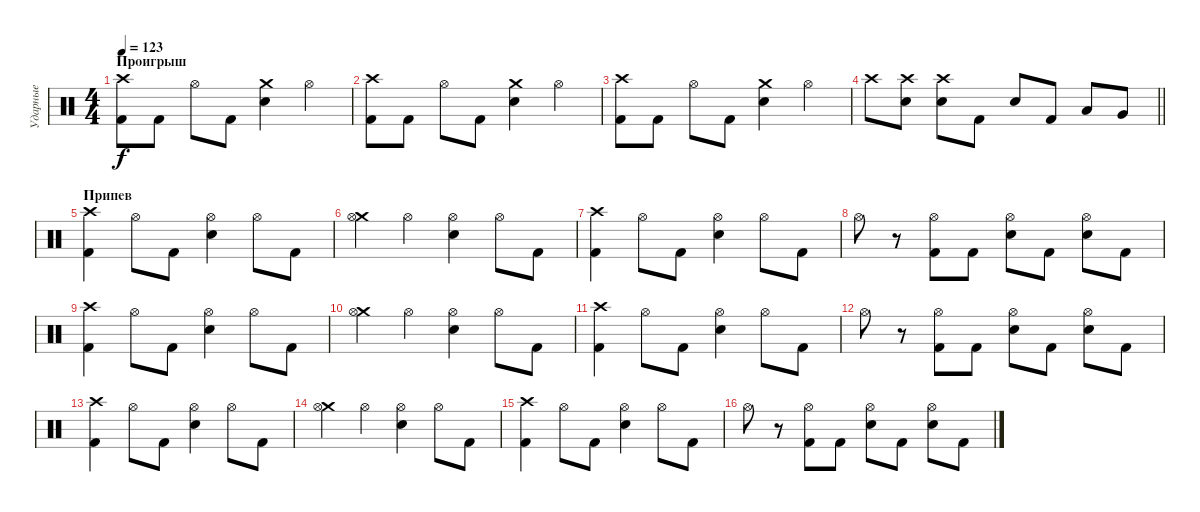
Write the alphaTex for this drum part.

\track ("Ударные" "Ударные") {instrument percussion}
\staff {score}
\articulation defaults
\ts (4 4)
\section ("" "Проигрыш")
\tempo 123
\clef neutral
\ks c
("Kick (hit) 2" "Crash high (hit)").8{dy f} "Kick (hit) 2".8 "Hi-Hat (open)".8 "Kick (hit) 2".8 ("Electric Snare (hit)" "Crash medium (hit)").4 "Hi-Hat (open)".4 |
("Kick (hit) 2" "Crash high (hit)").8 "Kick (hit) 2".8 "Hi-Hat (open)".8 "Kick (hit) 2".8 ("Electric Snare (hit)" "Crash medium (hit)").4 "Hi-Hat (open)".4 |
("Kick (hit) 2" "Crash high (hit)").8 "Kick (hit) 2".8 "Hi-Hat (open)".8 "Kick (hit) 2".8 ("Electric Snare (hit)" "Crash medium (hit)").4 "Hi-Hat (open)".4 |
\barLineRight lightlight "Crash high (hit)".8
("Electric Snare (hit)" "Crash high (hit)").8 ("Electric Snare (hit)" "Crash high (hit)").8 "Kick (hit) 2".8 "Electric Snare (hit)".8 "Kick (hit) 2".8 "Low Tom (hit)".8 "Very Low Tom (hit)".8 |
\section ("" "Припев")
("Kick (hit) 2" "Crash high (hit)").4 "Hi-Hat (open)".8 "Kick (hit) 2".8 ("Electric Snare (hit)" "Hi-Hat (open)").4 "Hi-Hat (open)".8 "Kick (hit) 2".8 |
("Crash medium (hit)" "Hi-Hat (open)").4 "Hi-Hat (open)".4 ("Electric Snare (hit)" "Hi-Hat (open)").4 "Hi-Hat (open)".8 "Kick (hit) 2".8 |
("Kick (hit) 2" "Crash high (hit)").4 "Hi-Hat (open)".8 "Kick (hit) 2".8 ("Electric Snare (hit)" "Hi-Hat (open)").4 "Hi-Hat (open)".8 "Kick (hit) 2".8 |
"Hi-Hat (open)".8 r.8 ("Kick (hit) 2" "Hi-Hat (open)").8 "Kick (hit) 2".8 ("Electric Snare (hit)" "Hi-Hat (open)").8 "Kick (hit) 2".8 ("Electric Snare (hit)" "Hi-Hat (open)").8 "Kick (hit) 2".8 |
("Kick (hit) 2" "Crash high (hit)").4 "Hi-Hat (open)".8 "Kick (hit) 2".8 ("Electric Snare (hit)" "Hi-Hat (open)").4 "Hi-Hat (open)".8 "Kick (hit) 2".8 |
("Crash medium (hit)" "Hi-Hat (open)").4 "Hi-Hat (open)".4 ("Electric Snare (hit)" "Hi-Hat (open)").4 "Hi-Hat (open)".8 "Kick (hit) 2".8 |
("Kick (hit) 2" "Crash high (hit)").4 "Hi-Hat (open)".8 "Kick (hit) 2".8 ("Electric Snare (hit)" "Hi-Hat (open)").4 "Hi-Hat (open)".8 "Kick (hit) 2".8 |
"Hi-Hat (open)".8 r.8 ("Kick (hit) 2" "Hi-Hat (open)").8 "Kick (hit) 2".8 ("Electric Snare (hit)" "Hi-Hat (open)").8 "Kick (hit) 2".8 ("Electric Snare (hit)" "Hi-Hat (open)").8 "Kick (hit) 2".8 |
("Kick (hit) 2" "Crash high (hit)").4 "Hi-Hat (open)".8 "Kick (hit) 2".8 ("Electric Snare (hit)" "Hi-Hat (open)").4 "Hi-Hat (open)".8 "Kick (hit) 2".8 |
("Crash medium (hit)" "Hi-Hat (open)").4 "Hi-Hat (open)".4 ("Electric Snare (hit)" "Hi-Hat (open)").4 "Hi-Hat (open)".8 "Kick (hit) 2".8 |
("Kick (hit) 2" "Crash high (hit)").4 "Hi-Hat (open)".8 "Kick (hit) 2".8 ("Electric Snare (hit)" "Hi-Hat (open)").4 "Hi-Hat (open)".8 "Kick (hit) 2".8 |
"Hi-Hat (open)".8 r.8 ("Kick (hit) 2" "Hi-Hat (open)").8 "Kick (hit) 2".8 ("Electric Snare (hit)" "Hi-Hat (open)").8 "Kick (hit) 2".8 ("Electric Snare (hit)" "Hi-Hat (open)").8 "Kick (hit) 2".8
